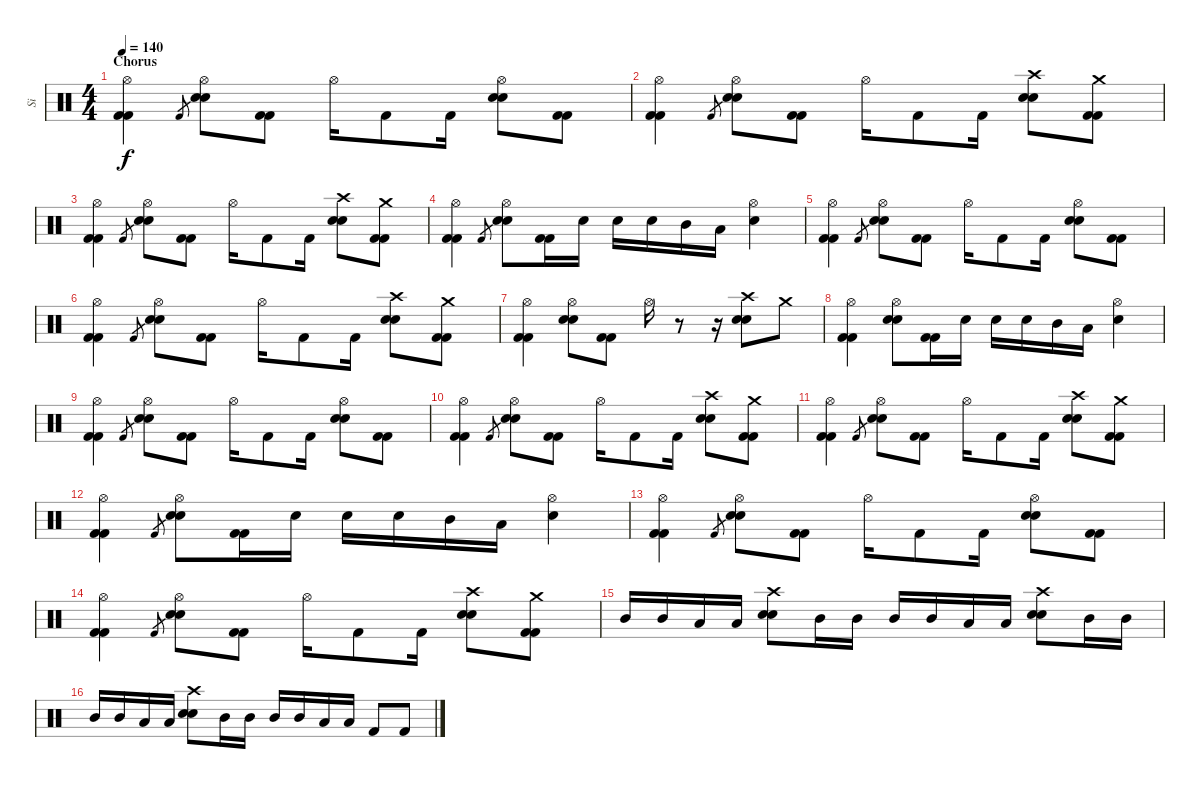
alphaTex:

\track ("Si" "Si") {instrument percussion}
\staff {score}
\articulation defaults
\ts (4 4)
\section ("" "Chorus")
\tempo 140
\clef neutral
\ks c
("Hi-Hat (open)" "Kick (hit) 2" "Kick (hit) 2").4{dy f} "Kick (hit) 2".8{gr} ("Hi-Hat (open)" "Electric Snare (hit)" "Electric Snare (hit)").8 ("Kick (hit) 2" "Kick (hit) 2").8 "Hi-Hat (open)".16 "Kick (hit) 2".8 "Kick (hit) 2".16 ("Hi-Hat (open)" "Electric Snare (hit)" "Electric Snare (hit)").8 ("Kick (hit) 2" "Kick (hit) 2").8 |
("Hi-Hat (open)" "Kick (hit) 2" "Kick (hit) 2").4 "Kick (hit) 2".8{gr} ("Hi-Hat (open)" "Electric Snare (hit)" "Electric Snare (hit)").8 ("Kick (hit) 2" "Kick (hit) 2").8 "Hi-Hat (open)".16 "Kick (hit) 2".8 "Kick (hit) 2".16 ("Crash high (hit)" "Electric Snare (hit)" "Electric Snare (hit)").8 ("Crash medium (hit)" "Kick (hit) 2" "Kick (hit) 2").8 |
("Hi-Hat (open)" "Kick (hit) 2" "Kick (hit) 2").4 "Kick (hit) 2".8{gr} ("Hi-Hat (open)" "Electric Snare (hit)" "Electric Snare (hit)").8 ("Kick (hit) 2" "Kick (hit) 2").8 "Hi-Hat (open)".16 "Kick (hit) 2".8 "Kick (hit) 2".16 ("Crash high (hit)" "Electric Snare (hit)" "Electric Snare (hit)").8 ("Crash medium (hit)" "Kick (hit) 2" "Kick (hit) 2").8 |
("Hi-Hat (open)" "Kick (hit) 2" "Kick (hit) 2").4 "Kick (hit) 2".8{gr} ("Hi-Hat (open)" "Electric Snare (hit)" "Electric Snare (hit)").8 ("Kick (hit) 2" "Kick (hit) 2").16 "Electric Snare (hit)".16 "Electric Snare (hit)".16 "Electric Snare (hit)".16 "Mid Tom (hit)".16 "Low Tom (hit)".16 ("Hi-Hat (open)" "Electric Snare (hit)").4 |
("Hi-Hat (open)" "Kick (hit) 2" "Kick (hit) 2").4 "Kick (hit) 2".8{gr} ("Hi-Hat (open)" "Electric Snare (hit)" "Electric Snare (hit)").8 ("Kick (hit) 2" "Kick (hit) 2").8 "Hi-Hat (open)".16 "Kick (hit) 2".8 "Kick (hit) 2".16 ("Hi-Hat (open)" "Electric Snare (hit)" "Electric Snare (hit)").8 ("Kick (hit) 2" "Kick (hit) 2").8 |
("Hi-Hat (open)" "Kick (hit) 2" "Kick (hit) 2").4 "Kick (hit) 2".8{gr} ("Hi-Hat (open)" "Electric Snare (hit)" "Electric Snare (hit)").8 ("Kick (hit) 2" "Kick (hit) 2").8 "Hi-Hat (open)".16 "Kick (hit) 2".8 "Kick (hit) 2".16 ("Crash high (hit)" "Electric Snare (hit)" "Electric Snare (hit)").8 ("Crash medium (hit)" "Kick (hit) 2" "Kick (hit) 2").8 |
("Hi-Hat (open)" "Kick (hit) 2" "Kick (hit) 2").4 ("Hi-Hat (open)" "Electric Snare (hit)" "Electric Snare (hit)").8 ("Kick (hit) 2" "Kick (hit) 2").8 "Hi-Hat (open)".16 r.8 r.16 ("Crash high (hit)" "Electric Snare (hit)" "Electric Snare (hit)").8 "Crash medium (hit)".8 |
("Hi-Hat (open)" "Kick (hit) 2" "Kick (hit) 2").4 ("Hi-Hat (open)" "Electric Snare (hit)" "Electric Snare (hit)").8 ("Kick (hit) 2" "Kick (hit) 2").16 "Electric Snare (hit)".16 "Electric Snare (hit)".16 "Electric Snare (hit)".16 "Mid Tom (hit)".16 "Low Tom (hit)".16 ("Hi-Hat (open)" "Electric Snare (hit)").4 |
("Hi-Hat (open)" "Kick (hit) 2" "Kick (hit) 2").4 "Kick (hit) 2".8{gr} ("Hi-Hat (open)" "Electric Snare (hit)" "Electric Snare (hit)").8 ("Kick (hit) 2" "Kick (hit) 2").8 "Hi-Hat (open)".16 "Kick (hit) 2".8 "Kick (hit) 2".16 ("Hi-Hat (open)" "Electric Snare (hit)" "Electric Snare (hit)").8 ("Kick (hit) 2" "Kick (hit) 2").8 |
("Hi-Hat (open)" "Kick (hit) 2" "Kick (hit) 2").4 "Kick (hit) 2".8{gr} ("Hi-Hat (open)" "Electric Snare (hit)" "Electric Snare (hit)").8 ("Kick (hit) 2" "Kick (hit) 2").8 "Hi-Hat (open)".16 "Kick (hit) 2".8 "Kick (hit) 2".16 ("Crash high (hit)" "Electric Snare (hit)" "Electric Snare (hit)").8 ("Crash medium (hit)" "Kick (hit) 2" "Kick (hit) 2").8 |
("Hi-Hat (open)" "Kick (hit) 2" "Kick (hit) 2").4 "Kick (hit) 2".8{gr} ("Hi-Hat (open)" "Electric Snare (hit)" "Electric Snare (hit)").8 ("Kick (hit) 2" "Kick (hit) 2").8 "Hi-Hat (open)".16 "Kick (hit) 2".8 "Kick (hit) 2".16 ("Crash high (hit)" "Electric Snare (hit)" "Electric Snare (hit)").8 ("Crash medium (hit)" "Kick (hit) 2" "Kick (hit) 2").8 |
("Hi-Hat (open)" "Kick (hit) 2" "Kick (hit) 2").4 "Kick (hit) 2".8{gr} ("Hi-Hat (open)" "Electric Snare (hit)" "Electric Snare (hit)").8 ("Kick (hit) 2" "Kick (hit) 2").16 "Electric Snare (hit)".16 "Electric Snare (hit)".16 "Electric Snare (hit)".16 "Mid Tom (hit)".16 "Low Tom (hit)".16 ("Hi-Hat (open)" "Electric Snare (hit)").4 |
("Hi-Hat (open)" "Kick (hit) 2" "Kick (hit) 2").4 "Kick (hit) 2".8{gr} ("Hi-Hat (open)" "Electric Snare (hit)" "Electric Snare (hit)").8 ("Kick (hit) 2" "Kick (hit) 2").8 "Hi-Hat (open)".16 "Kick (hit) 2".8 "Kick (hit) 2".16 ("Hi-Hat (open)" "Electric Snare (hit)" "Electric Snare (hit)").8 ("Kick (hit) 2" "Kick (hit) 2").8 |
("Hi-Hat (open)" "Kick (hit) 2" "Kick (hit) 2").4 "Kick (hit) 2".8{gr} ("Hi-Hat (open)" "Electric Snare (hit)" "Electric Snare (hit)").8 ("Kick (hit) 2" "Kick (hit) 2").8 "Hi-Hat (open)".16 "Kick (hit) 2".8 "Kick (hit) 2".16 ("Crash high (hit)" "Electric Snare (hit)" "Electric Snare (hit)").8 ("Crash medium (hit)" "Kick (hit) 2" "Kick (hit) 2").8 |
"Mid Tom (hit)".16 "Mid Tom (hit)".16 "Low Tom (hit)".16 "Low Tom (hit)".16 ("Crash high (hit)" "Electric Snare (hit)" "Electric Snare (hit)").8 "Mid Tom (hit)".16 "Mid Tom (hit)".16 "Mid Tom (hit)".16 "Mid Tom (hit)".16 "Low Tom (hit)".16 "Low Tom (hit)".16 ("Crash high (hit)" "Electric Snare (hit)" "Electric Snare (hit)").8 "Mid Tom (hit)".16 "Mid Tom (hit)".16 |
"Mid Tom (hit)".16 "Mid Tom (hit)".16 "Low Tom (hit)".16 "Low Tom (hit)".16 ("Crash high (hit)" "Electric Snare (hit)" "Electric Snare (hit)").8 "Mid Tom (hit)".16 "Mid Tom (hit)".16 "Mid Tom (hit)".16 "Mid Tom (hit)".16 "Low Tom (hit)".16 "Low Tom (hit)".16 "Kick (hit) 2".8 "Kick (hit) 2".8
